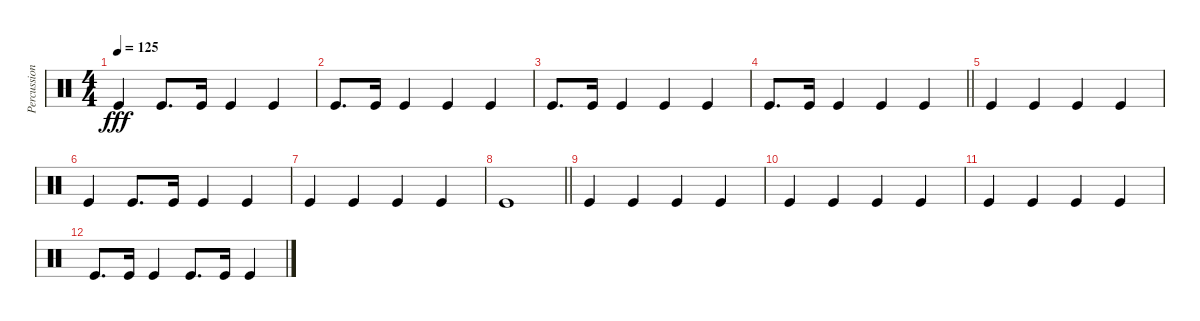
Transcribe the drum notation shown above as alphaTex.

\track ("Percussion" "Percussion") {instrument percussion}
\staff {score}
\articulation defaults
\ts (4 4)
\tempo 125
\clef neutral
\ks c "Kick (hit)".4{dy fff} "Kick (hit)".8{d} "Kick (hit)".16 "Kick (hit)".4 "Kick (hit)".4
|
"Kick (hit)".8{d} "Kick (hit)".16 "Kick (hit)".4 "Kick (hit)".4 "Kick (hit)".4 |
"Kick (hit)".8{d} "Kick (hit)".16 "Kick (hit)".4 "Kick (hit)".4 "Kick (hit)".4 |
\barLineRight lightlight "Kick (hit)".8{d} "Kick (hit)".16 "Kick (hit)".4 "Kick (hit)".4 "Kick (hit)".4
|
"Kick (hit)".4 "Kick (hit)".4 "Kick (hit)".4 "Kick (hit)".4 |
"Kick (hit)".4 "Kick (hit)".8{d} "Kick (hit)".16 "Kick (hit)".4 "Kick (hit)".4 |
"Kick (hit)".4 "Kick (hit)".4 "Kick (hit)".4 "Kick (hit)".4 |
\barLineRight lightlight "Kick (hit)".1
|
"Kick (hit)".4 "Kick (hit)".4 "Kick (hit)".4 "Kick (hit)".4 |
"Kick (hit)".4 "Kick (hit)".4 "Kick (hit)".4 "Kick (hit)".4 |
"Kick (hit)".4 "Kick (hit)".4 "Kick (hit)".4 "Kick (hit)".4 |
"Kick (hit)".8{d} "Kick (hit)".16 "Kick (hit)".4 "Kick (hit)".8{d} "Kick (hit)".16 "Kick (hit)".4
